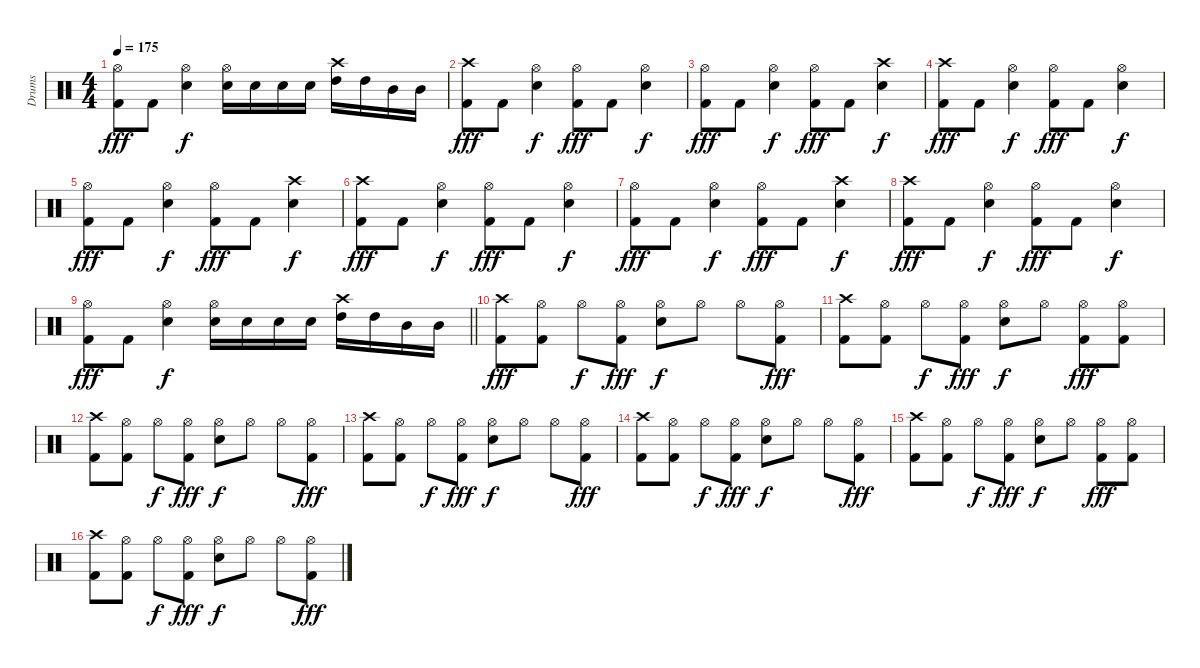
\track ("Drums" "Drums") {instrument percussion}
\staff {score}
\articulation defaults
\ts (4 4)
\tempo 175
\clef neutral
\ks c
("Hi-Hat (open)" "Kick (hit) 2").8{dy fff} "Kick (hit) 2".8 ("Hi-Hat (open)" "Electric Snare (hit)").4{dy f} ("Hi-Hat (open)" "Electric Snare (hit)").16 "Electric Snare (hit)".16 "Electric Snare (hit)".16 "Electric Snare (hit)".16 ("Crash high (hit)" "High Tom (hit)").16 "High Tom (hit)".16 "Mid Tom (hit)".16 "Mid Tom (hit)".16 |
("Crash high (hit)" "Kick (hit) 2").8{dy fff} "Kick (hit) 2".8 ("Hi-Hat (open)" "Electric Snare (hit)").4{dy f} ("Hi-Hat (open)" "Kick (hit) 2").8{dy fff} "Kick (hit) 2".8 ("Hi-Hat (open)" "Electric Snare (hit)").4{dy f} |
("Hi-Hat (open)" "Kick (hit) 2").8{dy fff} "Kick (hit) 2".8 ("Hi-Hat (open)" "Electric Snare (hit)").4{dy f} ("Hi-Hat (open)" "Kick (hit) 2").8{dy fff} "Kick (hit) 2".8 ("Crash high (hit)" "Electric Snare (hit)").4{dy f} |
("Crash high (hit)" "Kick (hit) 2").8{dy fff} "Kick (hit) 2".8 ("Hi-Hat (open)" "Electric Snare (hit)").4{dy f} ("Hi-Hat (open)" "Kick (hit) 2").8{dy fff} "Kick (hit) 2".8 ("Hi-Hat (open)" "Electric Snare (hit)").4{dy f} |
("Hi-Hat (open)" "Kick (hit) 2").8{dy fff} "Kick (hit) 2".8 ("Hi-Hat (open)" "Electric Snare (hit)").4{dy f} ("Hi-Hat (open)" "Kick (hit) 2").8{dy fff} "Kick (hit) 2".8 ("Crash high (hit)" "Electric Snare (hit)").4{dy f} |
("Crash high (hit)" "Kick (hit) 2").8{dy fff} "Kick (hit) 2".8 ("Hi-Hat (open)" "Electric Snare (hit)").4{dy f} ("Hi-Hat (open)" "Kick (hit) 2").8{dy fff} "Kick (hit) 2".8 ("Hi-Hat (open)" "Electric Snare (hit)").4{dy f} |
("Hi-Hat (open)" "Kick (hit) 2").8{dy fff} "Kick (hit) 2".8 ("Hi-Hat (open)" "Electric Snare (hit)").4{dy f} ("Hi-Hat (open)" "Kick (hit) 2").8{dy fff} "Kick (hit) 2".8 ("Crash high (hit)" "Electric Snare (hit)").4{dy f} |
("Crash high (hit)" "Kick (hit) 2").8{dy fff} "Kick (hit) 2".8 ("Hi-Hat (open)" "Electric Snare (hit)").4{dy f} ("Hi-Hat (open)" "Kick (hit) 2").8{dy fff} "Kick (hit) 2".8 ("Hi-Hat (open)" "Electric Snare (hit)").4{dy f} |
\barLineRight lightlight
("Hi-Hat (open)" "Kick (hit) 2").8{dy fff} "Kick (hit) 2".8 ("Hi-Hat (open)" "Electric Snare (hit)").4{dy f} ("Hi-Hat (open)" "Electric Snare (hit)").16 "Electric Snare (hit)".16 "Electric Snare (hit)".16 "Electric Snare (hit)".16 ("Crash high (hit)" "High Tom (hit)").16 "High Tom (hit)".16 "Mid Tom (hit)".16 "Mid Tom (hit)".16 |
("Crash high (hit)" "Kick (hit) 2").8{dy fff} ("Hi-Hat (open)" "Kick (hit) 2").8 "Hi-Hat (open)".8{dy f} ("Hi-Hat (open)" "Kick (hit) 2").8{dy fff} ("Hi-Hat (open)" "Electric Snare (hit)").8{dy f} "Hi-Hat (open)".8 "Hi-Hat (open)".8 ("Hi-Hat (open)" "Kick (hit) 2").8{dy fff} |
("Crash high (hit)" "Kick (hit) 2").8 ("Hi-Hat (open)" "Kick (hit) 2").8 "Hi-Hat (open)".8{dy f} ("Hi-Hat (open)" "Kick (hit) 2").8{dy fff} ("Hi-Hat (open)" "Electric Snare (hit)").8{dy f} "Hi-Hat (open)".8 ("Hi-Hat (open)" "Kick (hit) 2").8{dy fff} ("Hi-Hat (open)" "Kick (hit) 2").8 |
("Crash high (hit)" "Kick (hit) 2").8 ("Hi-Hat (open)" "Kick (hit) 2").8 "Hi-Hat (open)".8{dy f} ("Hi-Hat (open)" "Kick (hit) 2").8{dy fff} ("Hi-Hat (open)" "Electric Snare (hit)").8{dy f} "Hi-Hat (open)".8 "Hi-Hat (open)".8 ("Hi-Hat (open)" "Kick (hit) 2").8{dy fff} |
("Crash high (hit)" "Kick (hit) 2").8 ("Hi-Hat (open)" "Kick (hit) 2").8 "Hi-Hat (open)".8{dy f} ("Hi-Hat (open)" "Kick (hit) 2").8{dy fff} ("Hi-Hat (open)" "Electric Snare (hit)").8{dy f} "Hi-Hat (open)".8 "Hi-Hat (open)".8 ("Hi-Hat (open)" "Kick (hit) 2").8{dy fff} |
("Crash high (hit)" "Kick (hit) 2").8 ("Hi-Hat (open)" "Kick (hit) 2").8 "Hi-Hat (open)".8{dy f} ("Hi-Hat (open)" "Kick (hit) 2").8{dy fff} ("Hi-Hat (open)" "Electric Snare (hit)").8{dy f} "Hi-Hat (open)".8 "Hi-Hat (open)".8 ("Hi-Hat (open)" "Kick (hit) 2").8{dy fff} |
("Crash high (hit)" "Kick (hit) 2").8 ("Hi-Hat (open)" "Kick (hit) 2").8 "Hi-Hat (open)".8{dy f} ("Hi-Hat (open)" "Kick (hit) 2").8{dy fff} ("Hi-Hat (open)" "Electric Snare (hit)").8{dy f} "Hi-Hat (open)".8 ("Hi-Hat (open)" "Kick (hit) 2").8{dy fff} ("Hi-Hat (open)" "Kick (hit) 2").8 |
("Crash high (hit)" "Kick (hit) 2").8 ("Hi-Hat (open)" "Kick (hit) 2").8 "Hi-Hat (open)".8{dy f} ("Hi-Hat (open)" "Kick (hit) 2").8{dy fff} ("Hi-Hat (open)" "Electric Snare (hit)").8{dy f} "Hi-Hat (open)".8 "Hi-Hat (open)".8 ("Hi-Hat (open)" "Kick (hit) 2").8{dy fff}
